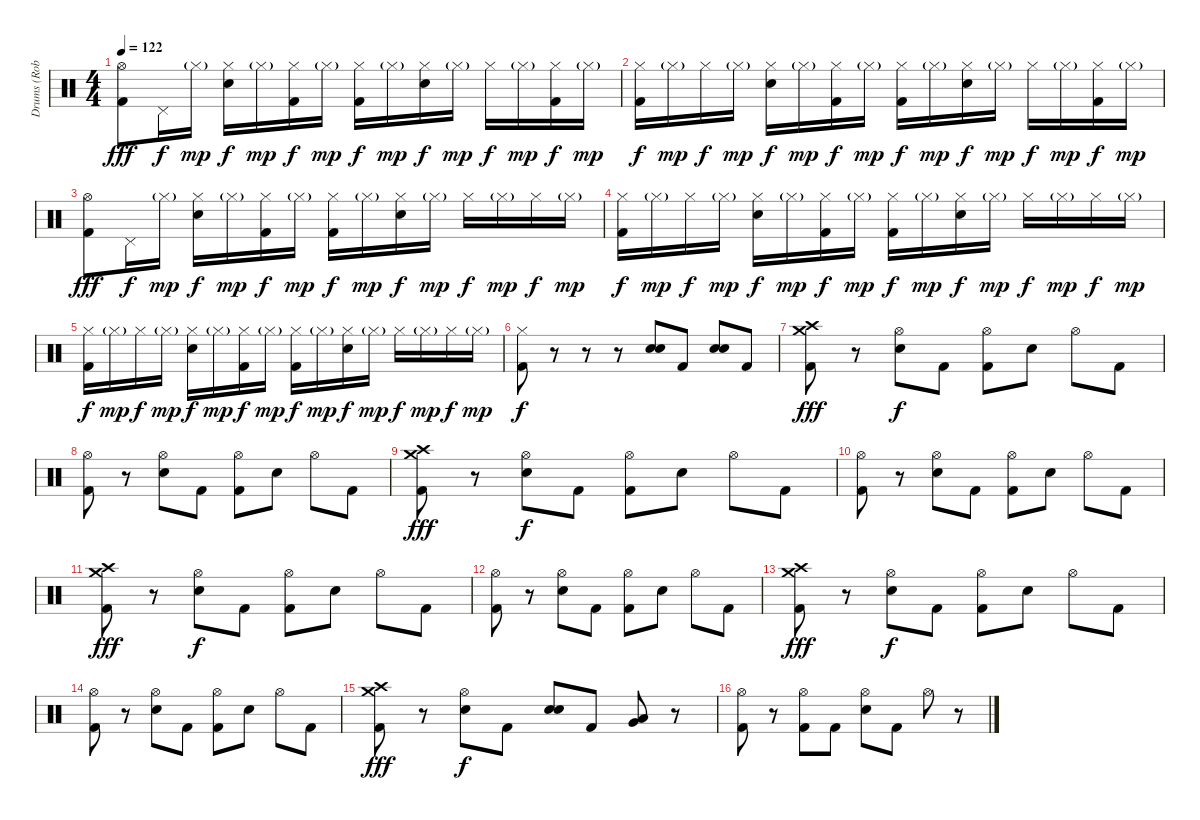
\track ("Drums (Rob Boudron)" "Drums (Rob") {instrument percussion}
\staff {score}
\articulation defaults
\ts (4 4)
\tempo 122
\clef neutral
\ks c
("Hi-Hat (open)" "Kick (hit) 2").8{dy fff} "Pedal Hi-Hat (hit)".16{dy f} "Hi-Hat (closed)"{g}.16{dy mp} ("Hi-Hat (closed)" "Electric Snare (hit)").16{dy f} "Hi-Hat (closed)"{g}.16{dy mp} ("Hi-Hat (closed)" "Kick (hit) 2").16{dy f} "Hi-Hat (closed)"{g}.16{dy mp} ("Hi-Hat (closed)" "Kick (hit) 2").16{dy f} "Hi-Hat (closed)"{g}.16{dy mp} ("Hi-Hat (closed)" "Electric Snare (hit)").16{dy f} "Hi-Hat (closed)"{g}.16{dy mp} "Hi-Hat (closed)".16{dy f} "Hi-Hat (closed)"{g}.16{dy mp} ("Hi-Hat (closed)" "Kick (hit) 2").16{dy f} "Hi-Hat (closed)"{g}.16{dy mp} |
("Hi-Hat (closed)" "Kick (hit) 2").16{dy f} "Hi-Hat (closed)"{g}.16{dy mp} "Hi-Hat (closed)".16{dy f} "Hi-Hat (closed)"{g}.16{dy mp} ("Hi-Hat (closed)" "Electric Snare (hit)").16{dy f} "Hi-Hat (closed)"{g}.16{dy mp} ("Hi-Hat (closed)" "Kick (hit) 2").16{dy f} "Hi-Hat (closed)"{g}.16{dy mp} ("Hi-Hat (closed)" "Kick (hit) 2").16{dy f} "Hi-Hat (closed)"{g}.16{dy mp} ("Hi-Hat (closed)" "Electric Snare (hit)").16{dy f} "Hi-Hat (closed)"{g}.16{dy mp} "Hi-Hat (closed)".16{dy f} "Hi-Hat (closed)"{g}.16{dy mp} ("Hi-Hat (closed)" "Kick (hit) 2").16{dy f} "Hi-Hat (closed)"{g}.16{dy mp} |
("Hi-Hat (open)" "Kick (hit) 2").8{dy fff} "Pedal Hi-Hat (hit)".16{dy f} "Hi-Hat (closed)"{g}.16{dy mp} ("Hi-Hat (closed)" "Electric Snare (hit)").16{dy f} "Hi-Hat (closed)"{g}.16{dy mp} ("Hi-Hat (closed)" "Kick (hit) 2").16{dy f} "Hi-Hat (closed)"{g}.16{dy mp} ("Hi-Hat (closed)" "Kick (hit) 2").16{dy f} "Hi-Hat (closed)"{g}.16{dy mp} ("Hi-Hat (closed)" "Electric Snare (hit)").16{dy f} "Hi-Hat (closed)"{g}.16{dy mp} "Hi-Hat (closed)".16{dy f} "Hi-Hat (closed)"{g}.16{dy mp} "Hi-Hat (closed)".16{dy f} "Hi-Hat (closed)"{g}.16{dy mp} |
("Hi-Hat (closed)" "Kick (hit) 2").16{dy f} "Hi-Hat (closed)"{g}.16{dy mp} "Hi-Hat (closed)".16{dy f} "Hi-Hat (closed)"{g}.16{dy mp} ("Hi-Hat (closed)" "Electric Snare (hit)").16{dy f} "Hi-Hat (closed)"{g}.16{dy mp} ("Hi-Hat (closed)" "Kick (hit) 2").16{dy f} "Hi-Hat (closed)"{g}.16{dy mp} ("Hi-Hat (closed)" "Kick (hit) 2").16{dy f} "Hi-Hat (closed)"{g}.16{dy mp} ("Hi-Hat (closed)" "Electric Snare (hit)").16{dy f} "Hi-Hat (closed)"{g}.16{dy mp} "Hi-Hat (closed)".16{dy f} "Hi-Hat (closed)"{g}.16{dy mp} "Hi-Hat (closed)".16{dy f} "Hi-Hat (closed)"{g}.16{dy mp} |
("Hi-Hat (closed)" "Kick (hit) 2").16{dy f} "Hi-Hat (closed)"{g}.16{dy mp} "Hi-Hat (closed)".16{dy f} "Hi-Hat (closed)"{g}.16{dy mp} ("Hi-Hat (closed)" "Electric Snare (hit)").16{dy f} "Hi-Hat (closed)"{g}.16{dy mp} ("Hi-Hat (closed)" "Kick (hit) 2").16{dy f} "Hi-Hat (closed)"{g}.16{dy mp} ("Hi-Hat (closed)" "Kick (hit) 2").16{dy f} "Hi-Hat (closed)"{g}.16{dy mp} ("Hi-Hat (closed)" "Electric Snare (hit)").16{dy f} "Hi-Hat (closed)"{g}.16{dy mp} "Hi-Hat (closed)".16{dy f} "Hi-Hat (closed)"{g}.16{dy mp} "Hi-Hat (closed)".16{dy f} "Hi-Hat (closed)"{g}.16{dy mp} |
("Hi-Hat (closed)" "Kick (hit) 2").8{dy f} r.8 r.8 r.8 ("Electric Snare (hit)" "Electric Snare (hit)").8 "Kick (hit) 2".8 ("Electric Snare (hit)" "Electric Snare (hit)").8 "Kick (hit) 2".8 |
("Crash medium (hit)" "Crash high (hit)" "Kick (hit) 2").8{dy fff} r.8 ("Hi-Hat (open)" "Electric Snare (hit)").8{dy f} "Kick (hit) 2".8 ("Hi-Hat (open)" "Kick (hit) 2").8 "Electric Snare (hit)".8 "Hi-Hat (open)".8 "Kick (hit) 2".8 |
("Hi-Hat (open)" "Kick (hit) 2").8 r.8 ("Hi-Hat (open)" "Electric Snare (hit)").8 "Kick (hit) 2".8 ("Hi-Hat (open)" "Kick (hit) 2").8 "Electric Snare (hit)".8 "Hi-Hat (open)".8 "Kick (hit) 2".8 |
("Crash medium (hit)" "Crash high (hit)" "Kick (hit) 2").8{dy fff} r.8 ("Hi-Hat (open)" "Electric Snare (hit)").8{dy f} "Kick (hit) 2".8 ("Hi-Hat (open)" "Kick (hit) 2").8 "Electric Snare (hit)".8 "Hi-Hat (open)".8 "Kick (hit) 2".8 |
("Hi-Hat (open)" "Kick (hit) 2").8 r.8 ("Hi-Hat (open)" "Electric Snare (hit)").8 "Kick (hit) 2".8 ("Hi-Hat (open)" "Kick (hit) 2").8 "Electric Snare (hit)".8 "Hi-Hat (open)".8 "Kick (hit) 2".8 |
("Crash medium (hit)" "Crash high (hit)" "Kick (hit) 2").8{dy fff} r.8 ("Hi-Hat (open)" "Electric Snare (hit)").8{dy f} "Kick (hit) 2".8 ("Hi-Hat (open)" "Kick (hit) 2").8 "Electric Snare (hit)".8 "Hi-Hat (open)".8 "Kick (hit) 2".8 |
("Hi-Hat (open)" "Kick (hit) 2").8 r.8 ("Hi-Hat (open)" "Electric Snare (hit)").8 "Kick (hit) 2".8 ("Hi-Hat (open)" "Kick (hit) 2").8 "Electric Snare (hit)".8 "Hi-Hat (open)".8 "Kick (hit) 2".8 |
("Crash medium (hit)" "Crash high (hit)" "Kick (hit) 2").8{dy fff} r.8 ("Hi-Hat (open)" "Electric Snare (hit)").8{dy f} "Kick (hit) 2".8 ("Hi-Hat (open)" "Kick (hit) 2").8 "Electric Snare (hit)".8 "Hi-Hat (open)".8 "Kick (hit) 2".8 |
("Hi-Hat (open)" "Kick (hit) 2").8 r.8 ("Hi-Hat (open)" "Electric Snare (hit)").8 "Kick (hit) 2".8 ("Hi-Hat (open)" "Kick (hit) 2").8 "Electric Snare (hit)".8 "Hi-Hat (open)".8 "Kick (hit) 2".8 |
("Crash medium (hit)" "Crash high (hit)" "Kick (hit) 2").8{dy fff} r.8 ("Hi-Hat (open)" "Electric Snare (hit)").8{dy f} "Kick (hit) 2".8 ("Electric Snare (hit)" "Electric Snare (hit)").8 "Kick (hit) 2".8 ("Very Low Tom (hit)" "Low Tom (hit)").8 r.8 |
("Hi-Hat (open)" "Kick (hit) 2").8 r.8 ("Hi-Hat (open)" "Kick (hit) 2").8 "Kick (hit) 2".8 ("Hi-Hat (open)" "Electric Snare (hit)").8 "Kick (hit) 2".8 "Hi-Hat (open)".8 r.8
